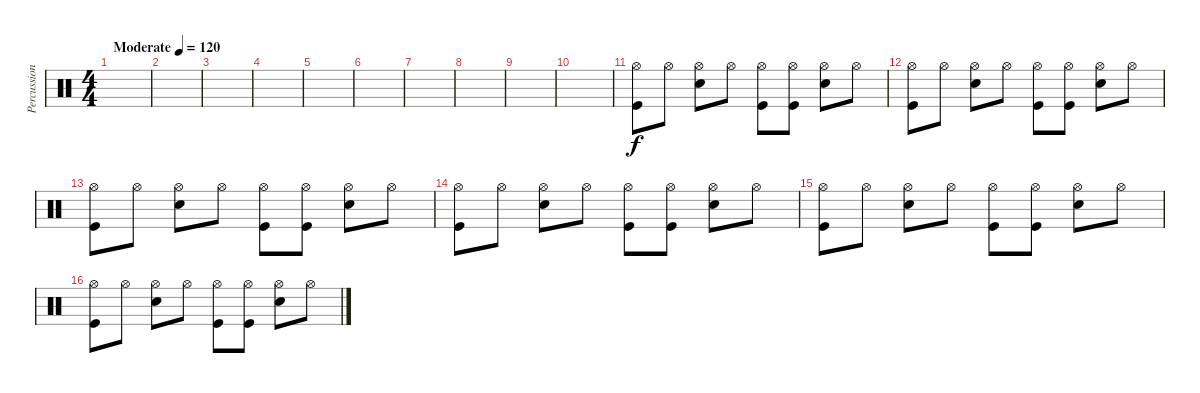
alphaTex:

\track ("Percussions" "Percussion") {instrument percussion}
\staff {score}
\articulation defaults
\ts (4 4)
\tempo (120 "Moderate")
\clef neutral
\ks c
|
|
|
|
|
|
|
|
|
|
("Hi-Hat (open)" "Kick (hit)").8 "Hi-Hat (open)".8 ("Hi-Hat (open)" "Electric Snare (hit)").8 "Hi-Hat (open)".8 ("Hi-Hat (open)" "Kick (hit)").8 ("Hi-Hat (open)" "Kick (hit)").8 ("Hi-Hat (open)" "Electric Snare (hit)").8 "Hi-Hat (open)".8 |
("Hi-Hat (open)" "Kick (hit)").8 "Hi-Hat (open)".8 ("Hi-Hat (open)" "Electric Snare (hit)").8 "Hi-Hat (open)".8 ("Hi-Hat (open)" "Kick (hit)").8 ("Hi-Hat (open)" "Kick (hit)").8 ("Hi-Hat (open)" "Electric Snare (hit)").8 "Hi-Hat (open)".8 |
("Hi-Hat (open)" "Kick (hit)").8 "Hi-Hat (open)".8 ("Hi-Hat (open)" "Electric Snare (hit)").8 "Hi-Hat (open)".8 ("Hi-Hat (open)" "Kick (hit)").8 ("Hi-Hat (open)" "Kick (hit)").8 ("Hi-Hat (open)" "Electric Snare (hit)").8 "Hi-Hat (open)".8 |
("Hi-Hat (open)" "Kick (hit)").8 "Hi-Hat (open)".8 ("Hi-Hat (open)" "Electric Snare (hit)").8 "Hi-Hat (open)".8 ("Hi-Hat (open)" "Kick (hit)").8 ("Hi-Hat (open)" "Kick (hit)").8 ("Hi-Hat (open)" "Electric Snare (hit)").8 "Hi-Hat (open)".8 |
("Hi-Hat (open)" "Kick (hit)").8 "Hi-Hat (open)".8 ("Hi-Hat (open)" "Electric Snare (hit)").8 "Hi-Hat (open)".8 ("Hi-Hat (open)" "Kick (hit)").8 ("Hi-Hat (open)" "Kick (hit)").8 ("Hi-Hat (open)" "Electric Snare (hit)").8 "Hi-Hat (open)".8 |
("Hi-Hat (open)" "Kick (hit)").8 "Hi-Hat (open)".8 ("Hi-Hat (open)" "Electric Snare (hit)").8 "Hi-Hat (open)".8 ("Hi-Hat (open)" "Kick (hit)").8 ("Hi-Hat (open)" "Kick (hit)").8 ("Hi-Hat (open)" "Electric Snare (hit)").8 "Hi-Hat (open)".8
